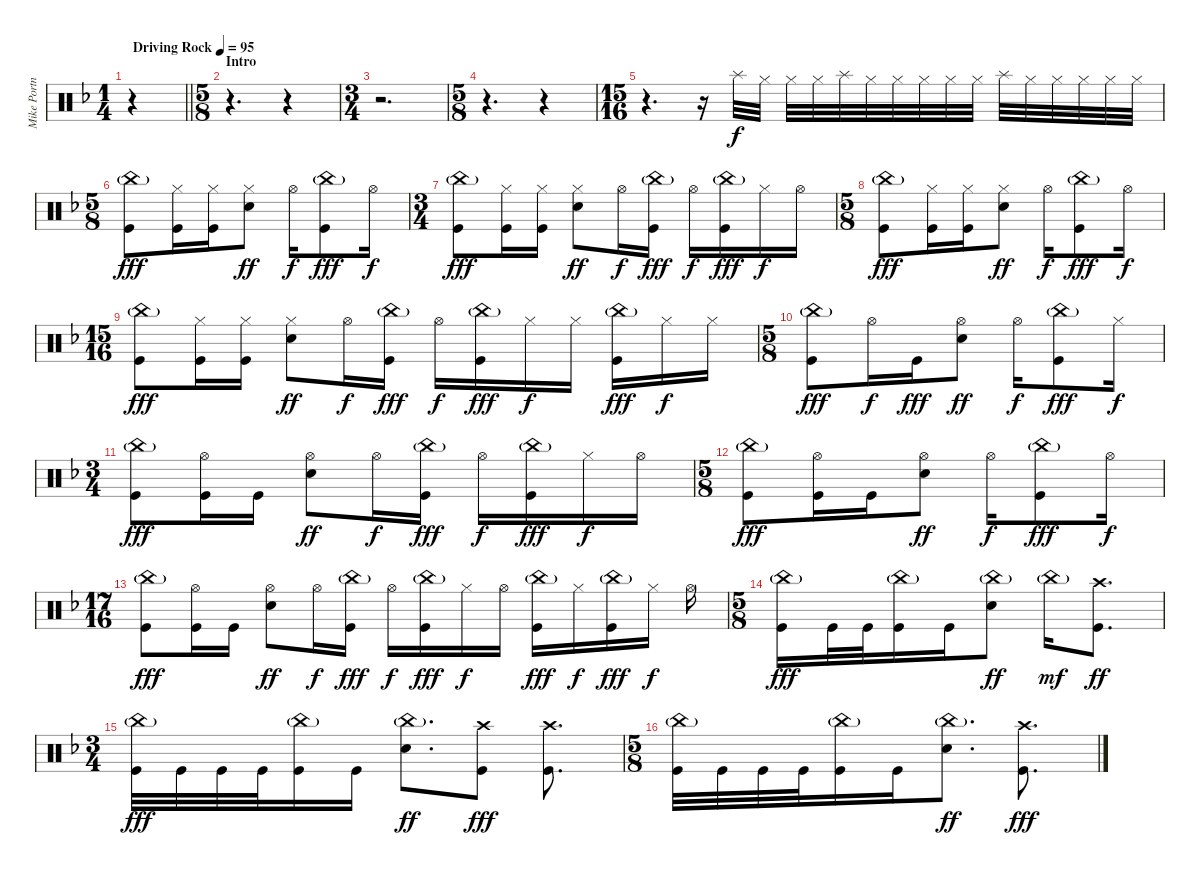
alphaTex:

\track ("Mike Portnoy" "Mike Portn") {instrument percussion}
\staff {score}
\articulation defaults
\ts (1 4)
\tempo (95 "Driving Rock")
\clef neutral
\barLineRight lightlight
\ks f
r.4{dy f} |
\ts (5 8)
\section ("" "Intro")
r.4{d} r.4 |
\ts (3 4)
r.2{d} |
\ts (5 8)
r.4{d} r.4 |
\ts (15 16)
r.4{d} r.16 "Splash (hit)".32 "Hi-Hat (closed)".32 "Hi-Hat (closed)".32 "Hi-Hat (closed)".32 "Splash (hit)".32 "Hi-Hat (closed)".32 "Hi-Hat (closed)".32 "Hi-Hat (closed)".32 "Hi-Hat (closed)".32 "Hi-Hat (closed)".32 "Splash (hit)".32 "Hi-Hat (closed)".32 "Hi-Hat (closed)".32 "Hi-Hat (closed)".32 "Hi-Hat (closed)".32 "Hi-Hat (closed)".32 |
\ts (5 8)
("China (hit)"{g} "Kick (hit)").8{dy fff} ("Hi-Hat (closed)" "Kick (hit)").16 ("Hi-Hat (closed)" "Kick (hit)").16 ("Hi-Hat (closed)" "Electric Snare (hit)").8{dy ff} "Hi-Hat (open)".16{dy f} ("China (hit)"{g} "Kick (hit)").8{dy fff} "Hi-Hat (open)".16{dy f} |
\ts (3 4)
("China (hit)"{g} "Kick (hit)").8{dy fff} ("Hi-Hat (closed)" "Kick (hit)").16 ("Hi-Hat (closed)" "Kick (hit)").16 ("Hi-Hat (closed)" "Electric Snare (hit)").8{dy ff} "Hi-Hat (open)".16{dy f} ("China (hit)"{g} "Kick (hit)").16{dy fff} "Hi-Hat (open)".16{dy f} ("China (hit)"{g} "Kick (hit)").16{dy fff} "Hi-Hat (closed)".16{dy f} "Hi-Hat (open)".16 |
\ts (5 8)
("China (hit)"{g} "Kick (hit)").8{dy fff} ("Hi-Hat (closed)" "Kick (hit)").16 ("Hi-Hat (closed)" "Kick (hit)").16 ("Hi-Hat (closed)" "Electric Snare (hit)").8{dy ff} "Hi-Hat (open)".16{dy f} ("China (hit)"{g} "Kick (hit)").8{dy fff} "Hi-Hat (open)".16{dy f} |
\ts (15 16)
("China (hit)"{g} "Kick (hit)").8{dy fff} ("Hi-Hat (closed)" "Kick (hit)").16 ("Hi-Hat (closed)" "Kick (hit)").16 ("Hi-Hat (closed)" "Electric Snare (hit)").8{dy ff} "Hi-Hat (open)".16{dy f} ("China (hit)"{g} "Kick (hit)").16{dy fff} "Hi-Hat (open)".16{dy f} ("China (hit)"{g} "Kick (hit)").16{dy fff} "Hi-Hat (closed)".16{dy f} "Hi-Hat (closed)".16 ("China (hit)"{g} "Kick (hit)").16{dy fff} "Hi-Hat (closed)".16{dy f} "Hi-Hat (closed)".16 |
\ts (5 8)
("China (hit)"{g} "Kick (hit)").8{dy fff} "Hi-Hat (open)".16{dy f} "Kick (hit)".16{dy fff} ("Hi-Hat (open)" "Electric Snare (hit)").8{dy ff} "Hi-Hat (open)".16{dy f} ("China (hit)"{g} "Kick (hit)").8{dy fff} "Hi-Hat (closed)".16{dy f} |
\ts (3 4)
("China (hit)"{g} "Kick (hit)").8{dy fff} ("Hi-Hat (open)" "Kick (hit)").16 "Kick (hit)".16 ("Hi-Hat (open)" "Electric Snare (hit)").8{dy ff} "Hi-Hat (open)".16{dy f} ("China (hit)"{g} "Kick (hit)").16{dy fff} "Hi-Hat (open)".16{dy f} ("China (hit)"{g} "Kick (hit)").16{dy fff} "Hi-Hat (closed)".16{dy f} "Hi-Hat (open)".16 |
\ts (5 8)
("China (hit)"{g} "Kick (hit)").8{dy fff} ("Hi-Hat (open)" "Kick (hit)").16 "Kick (hit)".16 ("Hi-Hat (open)" "Electric Snare (hit)").8{dy ff} "Hi-Hat (open)".16{dy f} ("China (hit)"{g} "Kick (hit)").8{dy fff} "Hi-Hat (open)".16{dy f} |
\ts (17 16)
("China (hit)"{g} "Kick (hit)").8{dy fff} ("Hi-Hat (open)" "Kick (hit)").16 "Kick (hit)".16 ("Hi-Hat (open)" "Electric Snare (hit)").8{dy ff} "Hi-Hat (open)".16{dy f} ("China (hit)"{g} "Kick (hit)").16{dy fff} "Hi-Hat (open)".16{dy f} ("China (hit)"{g} "Kick (hit)").16{dy fff} "Hi-Hat (closed)".16{dy f} "Hi-Hat (open)".16 ("China (hit)"{g} "Kick (hit)").16{dy fff} "Hi-Hat (closed)".16{dy f} ("China (hit)"{g} "Kick (hit)").16{dy fff} "Hi-Hat (closed)".16{dy f} "Hi-Hat (open)".16 |
\ts (5 8)
("China (hit)"{g} "Kick (hit)").16{dy fff} "Kick (hit)".32 "Kick (hit)".32 ("China (hit)"{g} "Kick (hit)").16 "Kick (hit)".16 ("China (hit)"{g} "Electric Snare (hit)").8{dy ff} "China (hit)"{g}.16{dy mf} ("Crash high (hit)" "Kick (hit)").8{d dy ff} |
\ts (3 4)
("China (hit)"{g} "Kick (hit)").32{dy fff} "Kick (hit)".32 "Kick (hit)".32 "Kick (hit)".32 ("China (hit)"{g} "Kick (hit)").16 "Kick (hit)".16 ("China (hit)"{g} "Electric Snare (hit)").8{d dy ff} ("Crash high (hit)" "Kick (hit)").8{dy fff} ("Crash high (hit)" "Kick (hit)").8{d} |
\ts (5 8)
("China (hit)"{g} "Kick (hit)").32 "Kick (hit)".32 "Kick (hit)".32 "Kick (hit)".32 ("China (hit)"{g} "Kick (hit)").16 "Kick (hit)".16 ("China (hit)"{g} "Electric Snare (hit)").8{d dy ff} ("Crash high (hit)" "Kick (hit)").8{d dy fff}
